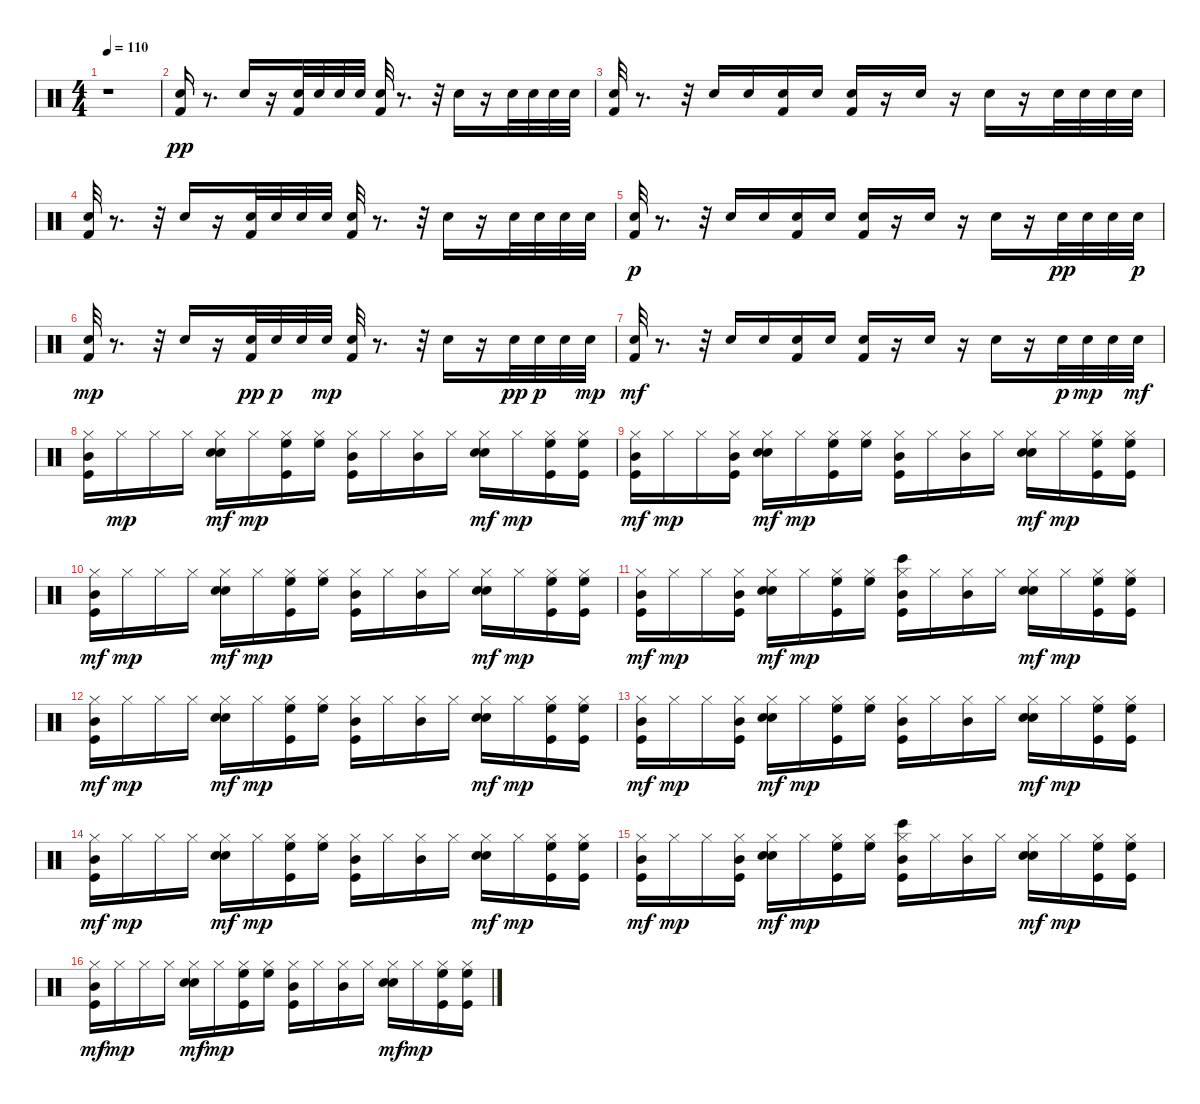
\track "" {instrument percussion}
\staff {score}
\articulation defaults
\ts (4 4)
\tempo 110
\clef neutral
\ks c
r.1{dy pp} |
("Kick (hit) 2" "Snare (hit) 2").16 r.8{d} "Snare (hit) 2".16 r.16 ("Kick (hit) 2" "Snare (hit) 2").32 "Snare (hit) 2".32 "Snare (hit) 2".32 "Snare (hit) 2".32 ("Kick (hit) 2" "Snare (hit) 2").32 r.8{d} r.32 "Snare (hit) 2".16 r.16 "Snare (hit) 2".32 "Snare (hit) 2".32 "Snare (hit) 2".32 "Snare (hit) 2".32 |
("Kick (hit) 2" "Snare (hit) 2").32 r.8{d} r.32 "Snare (hit) 2".16 "Snare (hit) 2".16 ("Kick (hit) 2" "Snare (hit) 2").16 "Snare (hit) 2".16 ("Kick (hit) 2" "Snare (hit) 2").16 r.16 "Snare (hit) 2".16 r.16 "Snare (hit) 2".16 r.16 "Snare (hit) 2".32 "Snare (hit) 2".32 "Snare (hit) 2".32 "Snare (hit) 2".32 |
("Kick (hit) 2" "Snare (hit) 2").32 r.8{d} r.32 "Snare (hit) 2".16 r.16 ("Kick (hit) 2" "Snare (hit) 2").32 "Snare (hit) 2".32 "Snare (hit) 2".32 "Snare (hit) 2".32 ("Kick (hit) 2" "Snare (hit) 2").32 r.8{d} r.32 "Snare (hit) 2".16 r.16 "Snare (hit) 2".32 "Snare (hit) 2".32 "Snare (hit) 2".32 "Snare (hit) 2".32 |
("Kick (hit) 2" "Snare (hit) 2").32{dy p} r.8{d} r.32 "Snare (hit) 2".16 "Snare (hit) 2".16 ("Kick (hit) 2" "Snare (hit) 2").16 "Snare (hit) 2".16 ("Kick (hit) 2" "Snare (hit) 2").16 r.16 "Snare (hit) 2".16 r.16 "Snare (hit) 2".16 r.16 "Snare (hit) 2".32{dy pp} "Snare (hit) 2".32 "Snare (hit) 2".32 "Snare (hit) 2".32{dy p} |
("Kick (hit) 2" "Snare (hit) 2").32{dy mp} r.8{d} r.32 "Snare (hit) 2".16 r.16 ("Kick (hit) 2" "Snare (hit) 2").32{dy pp} "Snare (hit) 2".32{dy p} "Snare (hit) 2".32 "Snare (hit) 2".32{dy mp} ("Kick (hit) 2" "Snare (hit) 2").32 r.8{d} r.32 "Snare (hit) 2".16 r.16 "Snare (hit) 2".32{dy pp} "Snare (hit) 2".32{dy p} "Snare (hit) 2".32 "Snare (hit) 2".32{dy mp} |
("Kick (hit) 2" "Snare (hit) 2").32{dy mf} r.8{d} r.32 "Snare (hit) 2".16 "Snare (hit) 2".16 ("Kick (hit) 2" "Snare (hit) 2").16 "Snare (hit) 2".16 ("Kick (hit) 2" "Snare (hit) 2").16 r.16 "Snare (hit) 2".16 r.16 "Snare (hit) 2".16 r.16 "Snare (hit) 2".32{dy p} "Snare (hit) 2".32{dy mp} "Snare (hit) 2".32 "Snare (hit) 2".32{dy mf} |
("Kick (hit)" "Hi-Hat (closed)" "Mid Tom (hit)").16 "Hi-Hat (closed)".16{dy mp} "Hi-Hat (closed)".16 "Hi-Hat (closed)".16 ("Electric Snare (hit)" "Hi-Hat (closed)" "Hand Clap (hit)").16{dy mf} "Hi-Hat (closed)".16{dy mp} ("Kick (hit)" "Hi-Hat (closed)" "High Floor Tom (hit)").16 ("Hi-Hat (closed)" "High Floor Tom (hit)").16 ("Kick (hit)" "Hi-Hat (closed)" "Mid Tom (hit)").16 "Hi-Hat (closed)".16 ("Hi-Hat (closed)" "Mid Tom (hit)").16 "Hi-Hat (closed)".16 ("Electric Snare (hit)" "Hi-Hat (closed)" "Hand Clap (hit)").16{dy mf} "Hi-Hat (closed)".16{dy mp} ("Kick (hit)" "Hi-Hat (closed)" "High Floor Tom (hit)").16 ("Kick (hit)" "Hi-Hat (closed)" "High Floor Tom (hit)").16 |
("Kick (hit)" "Hi-Hat (closed)" "Mid Tom (hit)").16{dy mf} "Hi-Hat (closed)".16{dy mp} "Hi-Hat (closed)".16 ("Kick (hit)" "Hi-Hat (closed)" "Mid Tom (hit)").16 ("Electric Snare (hit)" "Hi-Hat (closed)" "Hand Clap (hit)").16{dy mf} "Hi-Hat (closed)".16{dy mp} ("Kick (hit)" "Hi-Hat (closed)" "High Floor Tom (hit)").16 ("Hi-Hat (closed)" "High Floor Tom (hit)").16 ("Kick (hit)" "Hi-Hat (closed)" "Mid Tom (hit)").16 "Hi-Hat (closed)".16 ("Hi-Hat (closed)" "Mid Tom (hit)").16 "Hi-Hat (closed)".16 ("Electric Snare (hit)" "Hi-Hat (closed)" "Hand Clap (hit)").16{dy mf} "Hi-Hat (closed)".16{dy mp} ("Kick (hit)" "Hi-Hat (closed)" "High Floor Tom (hit)").16 ("Kick (hit)" "Hi-Hat (closed)" "High Floor Tom (hit)").16 |
("Kick (hit)" "Hi-Hat (closed)" "Mid Tom (hit)").16{dy mf} "Hi-Hat (closed)".16{dy mp} "Hi-Hat (closed)".16 "Hi-Hat (closed)".16 ("Electric Snare (hit)" "Hi-Hat (closed)" "Hand Clap (hit)").16{dy mf} "Hi-Hat (closed)".16{dy mp} ("Kick (hit)" "Hi-Hat (closed)" "High Floor Tom (hit)").16 ("Hi-Hat (closed)" "High Floor Tom (hit)").16 ("Kick (hit)" "Hi-Hat (closed)" "Mid Tom (hit)").16 "Hi-Hat (closed)".16 ("Hi-Hat (closed)" "Mid Tom (hit)").16 "Hi-Hat (closed)".16 ("Electric Snare (hit)" "Hi-Hat (closed)" "Hand Clap (hit)").16{dy mf} "Hi-Hat (closed)".16{dy mp} ("Kick (hit)" "Hi-Hat (closed)" "High Floor Tom (hit)").16 ("Kick (hit)" "Hi-Hat (closed)" "High Floor Tom (hit)").16 |
("Kick (hit)" "Hi-Hat (closed)" "Mid Tom (hit)").16{dy mf} "Hi-Hat (closed)".16{dy mp} "Hi-Hat (closed)".16 ("Kick (hit)" "Hi-Hat (closed)" "Mid Tom (hit)").16 ("Electric Snare (hit)" "Hi-Hat (closed)" "Hand Clap (hit)").16{dy mf} "Hi-Hat (closed)".16{dy mp} ("Kick (hit)" "Hi-Hat (closed)" "High Floor Tom (hit)").16 ("Hi-Hat (closed)" "High Floor Tom (hit)").16 ("Bongo High (hit)" "Kick (hit)" "Hi-Hat (closed)" "Mid Tom (hit)").16 "Hi-Hat (closed)".16 ("Hi-Hat (closed)" "Mid Tom (hit)").16 "Hi-Hat (closed)".16 ("Electric Snare (hit)" "Hi-Hat (closed)" "Hand Clap (hit)").16{dy mf} "Hi-Hat (closed)".16{dy mp} ("Kick (hit)" "Hi-Hat (closed)" "High Floor Tom (hit)").16 ("Kick (hit)" "Hi-Hat (closed)" "High Floor Tom (hit)").16 |
("Kick (hit)" "Hi-Hat (closed)" "Mid Tom (hit)").16{dy mf} "Hi-Hat (closed)".16{dy mp} "Hi-Hat (closed)".16 "Hi-Hat (closed)".16 ("Electric Snare (hit)" "Hi-Hat (closed)" "Hand Clap (hit)").16{dy mf} "Hi-Hat (closed)".16{dy mp} ("Kick (hit)" "Hi-Hat (closed)" "High Floor Tom (hit)").16 ("Hi-Hat (closed)" "High Floor Tom (hit)").16 ("Kick (hit)" "Hi-Hat (closed)" "Mid Tom (hit)").16 "Hi-Hat (closed)".16 ("Hi-Hat (closed)" "Mid Tom (hit)").16 "Hi-Hat (closed)".16 ("Electric Snare (hit)" "Hi-Hat (closed)" "Hand Clap (hit)").16{dy mf} "Hi-Hat (closed)".16{dy mp} ("Kick (hit)" "Hi-Hat (closed)" "High Floor Tom (hit)").16 ("Kick (hit)" "Hi-Hat (closed)" "High Floor Tom (hit)").16 |
("Kick (hit)" "Hi-Hat (closed)" "Mid Tom (hit)").16{dy mf} "Hi-Hat (closed)".16{dy mp} "Hi-Hat (closed)".16 ("Kick (hit)" "Hi-Hat (closed)" "Mid Tom (hit)").16 ("Electric Snare (hit)" "Hi-Hat (closed)" "Hand Clap (hit)").16{dy mf} "Hi-Hat (closed)".16{dy mp} ("Kick (hit)" "Hi-Hat (closed)" "High Floor Tom (hit)").16 ("Hi-Hat (closed)" "High Floor Tom (hit)").16 ("Kick (hit)" "Hi-Hat (closed)" "Mid Tom (hit)").16 "Hi-Hat (closed)".16 ("Hi-Hat (closed)" "Mid Tom (hit)").16 "Hi-Hat (closed)".16 ("Electric Snare (hit)" "Hi-Hat (closed)" "Hand Clap (hit)").16{dy mf} "Hi-Hat (closed)".16{dy mp} ("Kick (hit)" "Hi-Hat (closed)" "High Floor Tom (hit)").16 ("Kick (hit)" "Hi-Hat (closed)" "High Floor Tom (hit)").16 |
("Kick (hit)" "Hi-Hat (closed)" "Mid Tom (hit)").16{dy mf} "Hi-Hat (closed)".16{dy mp} "Hi-Hat (closed)".16 "Hi-Hat (closed)".16 ("Electric Snare (hit)" "Hi-Hat (closed)" "Hand Clap (hit)").16{dy mf} "Hi-Hat (closed)".16{dy mp} ("Kick (hit)" "Hi-Hat (closed)" "High Floor Tom (hit)").16 ("Hi-Hat (closed)" "High Floor Tom (hit)").16 ("Kick (hit)" "Hi-Hat (closed)" "Mid Tom (hit)").16 "Hi-Hat (closed)".16 ("Hi-Hat (closed)" "Mid Tom (hit)").16 "Hi-Hat (closed)".16 ("Electric Snare (hit)" "Hi-Hat (closed)" "Hand Clap (hit)").16{dy mf} "Hi-Hat (closed)".16{dy mp} ("Kick (hit)" "Hi-Hat (closed)" "High Floor Tom (hit)").16 ("Kick (hit)" "Hi-Hat (closed)" "High Floor Tom (hit)").16 |
("Kick (hit)" "Hi-Hat (closed)" "Mid Tom (hit)").16{dy mf} "Hi-Hat (closed)".16{dy mp} "Hi-Hat (closed)".16 ("Kick (hit)" "Hi-Hat (closed)" "Mid Tom (hit)").16 ("Electric Snare (hit)" "Hi-Hat (closed)" "Hand Clap (hit)").16{dy mf} "Hi-Hat (closed)".16{dy mp} ("Kick (hit)" "Hi-Hat (closed)" "High Floor Tom (hit)").16 ("Hi-Hat (closed)" "High Floor Tom (hit)").16 ("Bongo High (hit)" "Kick (hit)" "Hi-Hat (closed)" "Mid Tom (hit)").16 "Hi-Hat (closed)".16 ("Hi-Hat (closed)" "Mid Tom (hit)").16 "Hi-Hat (closed)".16 ("Electric Snare (hit)" "Hi-Hat (closed)" "Hand Clap (hit)").16{dy mf} "Hi-Hat (closed)".16{dy mp} ("Kick (hit)" "Hi-Hat (closed)" "High Floor Tom (hit)").16 ("Kick (hit)" "Hi-Hat (closed)" "High Floor Tom (hit)").16 |
("Kick (hit)" "Hi-Hat (closed)" "Mid Tom (hit)").16{dy mf} "Hi-Hat (closed)".16{dy mp} "Hi-Hat (closed)".16 "Hi-Hat (closed)".16 ("Electric Snare (hit)" "Hi-Hat (closed)" "Hand Clap (hit)").16{dy mf} "Hi-Hat (closed)".16{dy mp} ("Kick (hit)" "Hi-Hat (closed)" "High Floor Tom (hit)").16 ("Hi-Hat (closed)" "High Floor Tom (hit)").16 ("Kick (hit)" "Hi-Hat (closed)" "Mid Tom (hit)").16 "Hi-Hat (closed)".16 ("Hi-Hat (closed)" "Mid Tom (hit)").16 "Hi-Hat (closed)".16 ("Electric Snare (hit)" "Hi-Hat (closed)" "Hand Clap (hit)").16{dy mf} "Hi-Hat (closed)".16{dy mp} ("Kick (hit)" "Hi-Hat (closed)" "High Floor Tom (hit)").16 ("Kick (hit)" "Hi-Hat (closed)" "High Floor Tom (hit)").16
